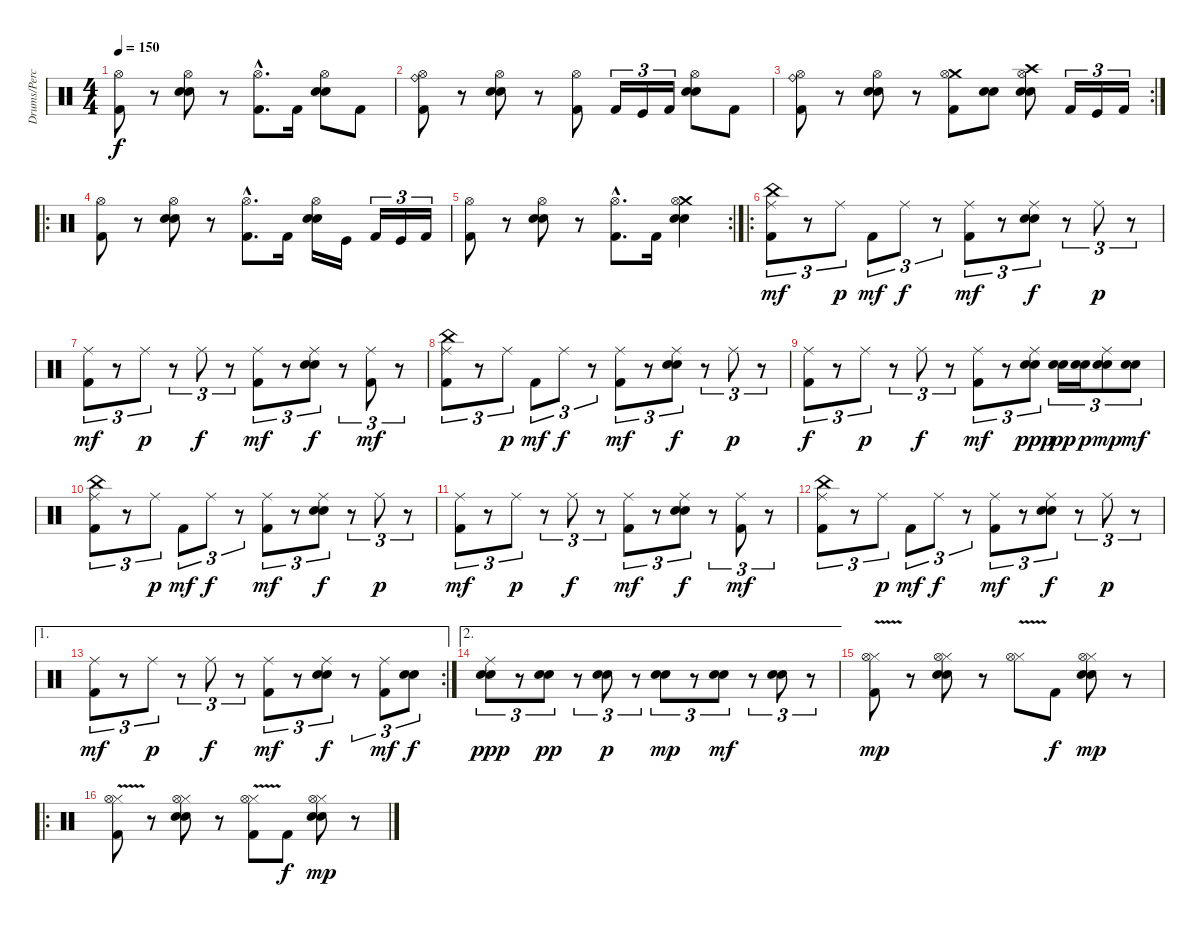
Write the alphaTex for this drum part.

\track ("Drums/Percussion" "Drums/Perc") {instrument percussion}
\staff {score}
\articulation defaults
\ts (4 4)
\tempo 150
\clef neutral
\ks c
("Hi-Hat (open)" "Kick (hit) 2").8{dy f} r.8 ("Hi-Hat (open)" "Electric Snare (hit)" "Snare (hit) 2").8 r.8 ("Hi-Hat (open)"{hac} "Kick (hit) 2"{hac}).8{d} "Kick (hit) 2".16 ("Hi-Hat (open)" "Electric Snare (hit)" "Snare (hit) 2").8 "Kick (hit) 2".8 |
("Ride (bell)" "Hi-Hat (open)" "Kick (hit) 2").8 r.8 ("Hi-Hat (open)" "Electric Snare (hit)" "Snare (hit) 2").8 r.8 ("Hi-Hat (open)" "Kick (hit) 2").8 "Kick (hit) 2".16{tu (3 2)} "Kick (hit)".16{tu (3 2)} "Kick (hit) 2".16{tu (3 2)} ("Hi-Hat (open)" "Electric Snare (hit)" "Snare (hit) 2").8 "Kick (hit) 2".8 |
\rc 2
("Ride (bell)" "Hi-Hat (open)" "Kick (hit) 2").8 r.8 ("Hi-Hat (open)" "Electric Snare (hit)" "Snare (hit) 2").8 r.8 ("Crash medium (hit)" "Hi-Hat (open)" "Kick (hit) 2").8 ("Electric Snare (hit)" "Snare (hit) 2").8 ("Crash high (hit)" "Hi-Hat (open)" "Electric Snare (hit)" "Snare (hit) 2").8 "Kick (hit) 2".16{tu (3 2)} "Kick (hit)".16{tu (3 2)} "Kick (hit) 2".16{tu (3 2)} |
\ro
("Hi-Hat (open)" "Kick (hit) 2").8 r.8 ("Hi-Hat (open)" "Electric Snare (hit)" "Snare (hit) 2").8 r.8 ("Hi-Hat (open)"{hac} "Kick (hit) 2"{hac}).8{d} "Kick (hit) 2".16 ("Hi-Hat (open)" "Electric Snare (hit)" "Snare (hit) 2").16 "Kick (hit)".16 "Kick (hit) 2".16{tu (3 2)} "Kick (hit)".16{tu (3 2)} "Kick (hit) 2".16{tu (3 2)} |
\rc 2
("Hi-Hat (open)" "Kick (hit) 2").8 r.8 ("Hi-Hat (open)" "Electric Snare (hit)" "Snare (hit) 2").8 r.8 ("Hi-Hat (open)"{hac} "Kick (hit) 2"{hac}).8{d} "Kick (hit) 2".16 ("Crash medium (hit)" "Hi-Hat (open)" "Electric Snare (hit)" "Snare (hit) 2").4 |
\ro
("Ride (middle)" "China (hit)" "Kick (hit) 2").8{tu (3 2) dy mf} r.8{tu (3 2)} "Ride (middle)".8{tu (3 2) dy p} "Kick (hit) 2".8{tu (3 2) dy mf} "Ride (middle)".8{tu (3 2) dy f} r.8{tu (3 2)} ("Ride (middle)" "Kick (hit) 2").8{tu (3 2) dy mf} r.8{tu (3 2)} ("Ride (middle)" "Electric Snare (hit)" "Snare (hit) 2").8{tu (3 2) dy f} r.8{tu (3 2)} "Ride (middle)".8{tu (3 2) dy p} r.8{tu (3 2)} |
("Ride (middle)" "Kick (hit) 2").8{tu (3 2) dy mf} r.8{tu (3 2)} "Ride (middle)".8{tu (3 2) dy p} r.8{tu (3 2)} "Ride (middle)".8{tu (3 2) dy f} r.8{tu (3 2)} ("Ride (middle)" "Kick (hit) 2").8{tu (3 2) dy mf} r.8{tu (3 2)} ("Ride (middle)" "Electric Snare (hit)" "Snare (hit) 2").8{tu (3 2) dy f} r.8{tu (3 2)} ("Ride (middle)" "Kick (hit) 2").8{tu (3 2) dy mf} r.8{tu (3 2)} |
("Ride (middle)" "China (hit)" "Kick (hit) 2").8{tu (3 2)} r.8{tu (3 2)} "Ride (middle)".8{tu (3 2) dy p} "Kick (hit) 2".8{tu (3 2) dy mf} "Ride (middle)".8{tu (3 2) dy f} r.8{tu (3 2)} ("Ride (middle)" "Kick (hit) 2").8{tu (3 2) dy mf} r.8{tu (3 2)} ("Ride (middle)" "Electric Snare (hit)" "Snare (hit) 2").8{tu (3 2) dy f} r.8{tu (3 2)} "Ride (middle)".8{tu (3 2) dy p} r.8{tu (3 2)} |
("Ride (middle)" "Kick (hit) 2").8{tu (3 2) dy f} r.8{tu (3 2)} "Ride (middle)".8{tu (3 2) dy p} r.8{tu (3 2)} "Ride (middle)".8{tu (3 2) dy f} r.8{tu (3 2)} ("Ride (middle)" "Kick (hit) 2").8{tu (3 2) dy mf} r.8{tu (3 2)} ("Ride (middle)" "Electric Snare (hit)" "Snare (hit) 2").8{tu (3 2) dy ppp} ("Electric Snare (hit)" "Snare (hit) 2").16{tu (3 2) dy pp} ("Electric Snare (hit)" "Snare (hit) 2").16{tu (3 2) dy p} ("Ride (middle)" "Electric Snare (hit)" "Snare (hit) 2").8{tu (3 2) dy mp} ("Electric Snare (hit)" "Snare (hit) 2").8{tu (3 2) dy mf} |
("Ride (middle)" "China (hit)" "Kick (hit) 2").8{tu (3 2)} r.8{tu (3 2)} "Ride (middle)".8{tu (3 2) dy p} "Kick (hit) 2".8{tu (3 2) dy mf} "Ride (middle)".8{tu (3 2) dy f} r.8{tu (3 2)} ("Ride (middle)" "Kick (hit) 2").8{tu (3 2) dy mf} r.8{tu (3 2)} ("Ride (middle)" "Electric Snare (hit)" "Snare (hit) 2").8{tu (3 2) dy f} r.8{tu (3 2)} "Ride (middle)".8{tu (3 2) dy p} r.8{tu (3 2)} |
("Ride (middle)" "Kick (hit) 2").8{tu (3 2) dy mf} r.8{tu (3 2)} "Ride (middle)".8{tu (3 2) dy p} r.8{tu (3 2)} "Ride (middle)".8{tu (3 2) dy f} r.8{tu (3 2)} ("Ride (middle)" "Kick (hit) 2").8{tu (3 2) dy mf} r.8{tu (3 2)} ("Ride (middle)" "Electric Snare (hit)" "Snare (hit) 2").8{tu (3 2) dy f} r.8{tu (3 2)} ("Ride (middle)" "Kick (hit) 2").8{tu (3 2) dy mf} r.8{tu (3 2)} |
("Ride (middle)" "China (hit)" "Kick (hit) 2").8{tu (3 2)} r.8{tu (3 2)} "Ride (middle)".8{tu (3 2) dy p} "Kick (hit) 2".8{tu (3 2) dy mf} "Ride (middle)".8{tu (3 2) dy f} r.8{tu (3 2)} ("Ride (middle)" "Kick (hit) 2").8{tu (3 2) dy mf} r.8{tu (3 2)} ("Ride (middle)" "Electric Snare (hit)" "Snare (hit) 2").8{tu (3 2) dy f} r.8{tu (3 2)} "Ride (middle)".8{tu (3 2) dy p} r.8{tu (3 2)} |
\ae 1
\rc 2
("Ride (middle)" "Kick (hit) 2").8{tu (3 2) dy mf} r.8{tu (3 2)} "Ride (middle)".8{tu (3 2) dy p} r.8{tu (3 2)} "Ride (middle)".8{tu (3 2) dy f} r.8{tu (3 2)} ("Ride (middle)" "Kick (hit) 2").8{tu (3 2) dy mf} r.8{tu (3 2)} ("Ride (middle)" "Electric Snare (hit)" "Snare (hit) 2").8{tu (3 2) dy f} r.8{tu (3 2)} ("Ride (middle)" "Kick (hit) 2").8{tu (3 2) dy mf} ("Snare (hit) 2" "Electric Snare (hit)").8{tu (3 2) dy f} |
\ae 2
("Ride (middle)" "Electric Snare (hit)" "Snare (hit) 2").8{tu (3 2) dy ppp} r.8{tu (3 2)} ("Snare (hit) 2" "Electric Snare (hit)").8{tu (3 2) dy pp} r.8{tu (3 2)} ("Snare (hit) 2" "Electric Snare (hit)").8{tu (3 2) dy p} r.8{tu (3 2)} ("Snare (hit) 2" "Electric Snare (hit)").8{tu (3 2) dy mp} r.8{tu (3 2)} ("Snare (hit) 2" "Electric Snare (hit)").8{tu (3 2) dy mf} r.8{tu (3 2)} ("Snare (hit) 2" "Electric Snare (hit)").8{tu (3 2)} r.8{tu (3 2)} |
("Hi-Hat (closed)"{v} "Hi-Hat (open)"{v} "Kick (hit) 2"{v}).8{dy mp} r.8 ("Hi-Hat (closed)" "Hi-Hat (open)" "Snare (hit) 2" "Electric Snare (hit)").8 r.8 ("Hi-Hat (closed)"{v} "Hi-Hat (open)"{v}).8 "Kick (hit) 2".8{dy f} ("Hi-Hat (closed)" "Hi-Hat (open)" "Snare (hit) 2" "Electric Snare (hit)").8{dy mp} r.8 |
\ro
("Hi-Hat (closed)"{v} "Hi-Hat (open)"{v} "Kick (hit) 2"{v}).8 r.8 ("Hi-Hat (closed)" "Hi-Hat (open)" "Snare (hit) 2" "Electric Snare (hit)").8 r.8 ("Hi-Hat (closed)"{v} "Hi-Hat (open)"{v} "Kick (hit) 2"{v}).8 "Kick (hit) 2".8{dy f} ("Hi-Hat (closed)" "Hi-Hat (open)" "Snare (hit) 2" "Electric Snare (hit)").8{dy mp} r.8
